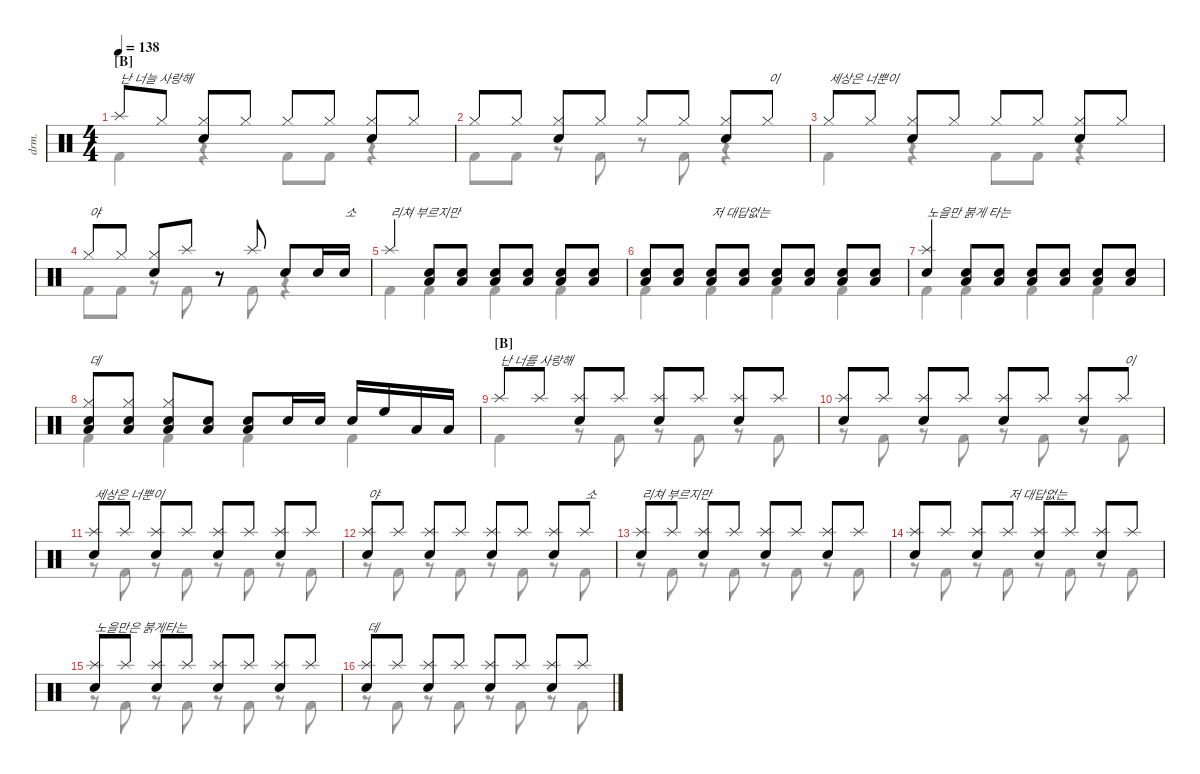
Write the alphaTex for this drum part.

\defaultSystemsLayout 4
\hideDynamics
\bracketExtendMode nobrackets
\track ("Drumkit" "drm.") {instrument percussion}
\staff {score}
\articulation defaults
\voice
\ts (4 4)
\section ("B" "")
\tempo 138
\clef neutral
\ks c "Splash (hit)".8{txt "난 너늘 사랑해" dy mf beam Up} "Hi-Hat (closed)".8{beam Up}
("Hi-Hat (closed)" "Snare (hit) 2").8{beam Up} "Hi-Hat (closed)".8{beam Up} "Hi-Hat (closed)".8{beam Up} "Hi-Hat (closed)".8{beam Up} ("Hi-Hat (closed)" "Snare (hit) 2").8{beam Up} "Hi-Hat (closed)".8{beam Up} |
"Hi-Hat (closed)".8{beam Up} "Hi-Hat (closed)".8{beam Up} ("Hi-Hat (closed)" "Snare (hit) 2").8{beam Up} "Hi-Hat (closed)".8{beam Up} "Hi-Hat (closed)".8{beam Up} "Hi-Hat (closed)".8{beam Up} ("Hi-Hat (closed)" "Snare (hit) 2").8{beam Up} "Hi-Hat (closed)".8{txt "이" beam Up} |
"Hi-Hat (closed)".8{txt "세상은 너뿐이" beam Up} "Hi-Hat (closed)".8{beam Up} ("Hi-Hat (closed)" "Snare (hit) 2").8{beam Up} "Hi-Hat (closed)".8{beam Up} "Hi-Hat (closed)".8{beam Up} "Hi-Hat (closed)".8{beam Up} ("Hi-Hat (closed)" "Snare (hit) 2").8{beam Up} "Hi-Hat (closed)".8{beam Up} |
"Hi-Hat (closed)".8{txt "야" beam Up} "Hi-Hat (closed)".8{beam Up} ("Hi-Hat (closed)" "Snare (hit) 2").8{beam Up} "Splash (hit)".8{beam Up} r.8{beam Up} "Splash (hit)".8{beam Up} "Snare (hit) 2".8{beam Up} "Snare (hit) 2".16{beam Up} "Snare (hit) 2".16{txt "소" beam Up} |
"Splash (hit)".4{txt "리쳐 부르지만" beam Up} ("Snare (hit) 2" "Low Tom (hit)").8{beam Up} ("Snare (hit) 2" "Low Tom (hit)").8{beam Up} ("Snare (hit) 2" "Low Tom (hit)").8{beam Up} ("Snare (hit) 2" "Low Tom (hit)").8{beam Up} ("Snare (hit) 2" "Low Tom (hit)").8{beam Up} ("Snare (hit) 2" "Low Tom (hit)").8{beam Up} |
("Low Tom (hit)" "Snare (hit) 2").8{beam Up} ("Low Tom (hit)" "Snare (hit) 2").8{beam Up} ("Snare (hit) 2" "Low Tom (hit)").8{txt "저 대답없는" beam Up} ("Low Tom (hit)" "Snare (hit) 2").8{beam Up} ("Low Tom (hit)" "Snare (hit) 2").8{beam Up} ("Snare (hit) 2" "Low Tom (hit)").8{beam Up} ("Snare (hit) 2" "Low Tom (hit)").8{beam Up} ("Snare (hit) 2" "Low Tom (hit)").8{beam Up} |
("Splash (hit)" "Snare (hit) 2").4{txt "노을만 붉게 타는" beam Up} ("Snare (hit) 2" "Low Tom (hit)").8{beam Up} ("Snare (hit) 2" "Low Tom (hit)").8{beam Up} ("Snare (hit) 2" "Low Tom (hit)").8{beam Up} ("Snare (hit) 2" "Low Tom (hit)").8{beam Up} ("Snare (hit) 2" "Low Tom (hit)").8{beam Up} ("Snare (hit) 2" "Low Tom (hit)").8{beam Up} |
("Hi-Hat (closed)" "Snare (hit) 2" "Low Tom (hit)").8{txt "데" beam Up} ("Hi-Hat (closed)" "Snare (hit) 2" "Low Tom (hit)").8{beam Up} ("Hi-Hat (closed)" "Snare (hit) 2" "Low Tom (hit)").8{beam Up} ("Snare (hit) 2" "Low Tom (hit)").8{beam Up} ("Snare (hit) 2" "Low Tom (hit)").8{beam Up} "Snare (hit) 2".16{beam Up} "Snare (hit) 2".16{beam Up} "Snare (hit) 2".16{beam Up} "High Floor Tom (hit)".16{beam Up} "Low Tom (hit)".16{beam Up} "Low Tom (hit)".16{beam Up} |
\section ("B" "")
"Splash (hit)".8{txt "난 너를 사랑해" beam Up} "Splash (hit)".8{beam Up} ("Splash (hit)" "Snare (hit) 2").8{beam Up} "Splash (hit)".8{beam Up} ("Splash (hit)" "Snare (hit) 2").8{beam Up} "Splash (hit)".8{beam Up} ("Splash (hit)" "Snare (hit) 2").8{beam Up} "Splash (hit)".8{beam Up} |
("Splash (hit)" "Snare (hit) 2").8{beam Up} "Splash (hit)".8{beam Up} ("Splash (hit)" "Snare (hit) 2").8{beam Up} "Splash (hit)".8{beam Up} ("Splash (hit)" "Snare (hit) 2").8{beam Up} "Splash (hit)".8{beam Up} ("Splash (hit)" "Snare (hit) 2").8{beam Up} "Splash (hit)".8{txt "이" beam Up} |
("Splash (hit)" "Snare (hit) 2").8{txt "세상은 너뿐이" beam Up} "Splash (hit)".8{beam Up} ("Splash (hit)" "Snare (hit) 2").8{beam Up} "Splash (hit)".8{beam Up} ("Splash (hit)" "Snare (hit) 2").8{beam Up} "Splash (hit)".8{beam Up} ("Splash (hit)" "Snare (hit) 2").8{beam Up} "Splash (hit)".8{beam Up} |
("Splash (hit)" "Snare (hit) 2").8{txt "야" beam Up} "Splash (hit)".8{beam Up} ("Splash (hit)" "Snare (hit) 2").8{beam Up} "Splash (hit)".8{beam Up} ("Splash (hit)" "Snare (hit) 2").8{beam Up} "Splash (hit)".8{beam Up} ("Splash (hit)" "Snare (hit) 2").8{beam Up} "Splash (hit)".8{txt "소" beam Up} |
("Splash (hit)" "Snare (hit) 2").8{txt "리쳐 부르지만" beam Up} "Splash (hit)".8{beam Up} ("Splash (hit)" "Snare (hit) 2").8{beam Up} "Splash (hit)".8{beam Up} ("Splash (hit)" "Snare (hit) 2").8{beam Up} "Splash (hit)".8{beam Up} ("Splash (hit)" "Snare (hit) 2").8{beam Up} "Splash (hit)".8{beam Up} |
("Splash (hit)" "Snare (hit) 2").8{beam Up} "Splash (hit)".8{beam Up} ("Splash (hit)" "Snare (hit) 2").8{beam Up} "Splash (hit)".8{txt "저 대답없는" beam Up} ("Splash (hit)" "Snare (hit) 2").8{beam Up} "Splash (hit)".8{beam Up} ("Splash (hit)" "Snare (hit) 2").8{beam Up} "Splash (hit)".8{beam Up} |
("Splash (hit)" "Snare (hit) 2").8{txt "노을만은 붉게타는" beam Up} "Splash (hit)".8{beam Up} ("Splash (hit)" "Snare (hit) 2").8{beam Up} "Splash (hit)".8{beam Up} ("Splash (hit)" "Snare (hit) 2").8{beam Up} "Splash (hit)".8{beam Up} ("Splash (hit)" "Snare (hit) 2").8{beam Up} "Splash (hit)".8{beam Up} |
("Splash (hit)" "Snare (hit) 2").8{txt "데" beam Up} "Splash (hit)".8{beam Up} ("Splash (hit)" "Snare (hit) 2").8{beam Up} "Splash (hit)".8{beam Up} ("Splash (hit)" "Snare (hit) 2").8{beam Up} "Splash (hit)".8{beam Up} ("Splash (hit)" "Snare (hit) 2").8{beam Up} "Splash (hit)".8{beam Up}
\voice
\clef neutral
\ottava regular
\simile none
\ks c
|
|
|
|
|
|
|
|
|
|
|
|
|
|
|
\voice
\clef neutral
\ottava regular
\simile none
\ks c "Kick (hit) 2".4{dy mf beam Down}
r.4{beam Down} "Kick (hit) 2".8{beam Down} "Kick (hit) 2".8{beam Down} r.4{beam Down} |
"Kick (hit) 2".8{beam Down} "Kick (hit) 2".8{beam Down} r.8{beam Down} "Kick (hit) 2".8{beam Down} r.8{beam Down} "Kick (hit) 2".8{beam Down} r.4{beam Down} |
"Kick (hit) 2".4{beam Down} r.4{beam Down} "Kick (hit) 2".8{beam Down} "Kick (hit) 2".8{beam Down} r.4{beam Down} |
"Kick (hit) 2".8{beam Down} "Kick (hit) 2".8{beam Down} r.8{beam Down} "Kick (hit) 2".8{beam Down} r.8{beam Down} "Kick (hit) 2".8{beam Down} r.4{beam Down} |
"Kick (hit) 2".4{beam Down} "Kick (hit) 2".4{beam Down} "Kick (hit) 2".4{beam Down} "Kick (hit) 2".4{beam Down} |
"Kick (hit) 2".4{beam Down} "Kick (hit) 2".4{beam Down} "Kick (hit) 2".4{beam Down} "Kick (hit) 2".4{beam Down} |
"Kick (hit) 2".4{beam Down} "Kick (hit) 2".4{beam Down} "Kick (hit) 2".4{beam Down} "Kick (hit) 2".4{beam Down} |
"Kick (hit) 2".4{beam Down} "Kick (hit) 2".4{beam Down} "Kick (hit) 2".4{beam Down} "Kick (hit) 2".4{beam Down} |
"Kick (hit) 2".4{beam Down} r.8{beam Down} "Kick (hit) 2".8{beam Down} r.8{beam Down} "Kick (hit) 2".8{beam Down} r.8{beam Down} "Kick (hit) 2".8{beam Down} |
r.8{beam Down} "Kick (hit) 2".8{beam Down} r.8{beam Down} "Kick (hit) 2".8{beam Down} r.8{beam Down} "Kick (hit) 2".8{beam Down} r.8{beam Down} "Kick (hit) 2".8{beam Down} |
r.8{beam Down} "Kick (hit) 2".8{beam Down} r.8{beam Down} "Kick (hit) 2".8{beam Down} r.8{beam Down} "Kick (hit) 2".8{beam Down} r.8{beam Down} "Kick (hit) 2".8{beam Down} |
r.8{beam Down} "Kick (hit) 2".8{beam Down} r.8{beam Down} "Kick (hit) 2".8{beam Down} r.8{beam Down} "Kick (hit) 2".8{beam Down} r.8{beam Down} "Kick (hit) 2".8{beam Down} |
r.8{beam Down} "Kick (hit) 2".8{beam Down} r.8{beam Down} "Kick (hit) 2".8{beam Down} r.8{beam Down} "Kick (hit) 2".8{beam Down} r.8{beam Down} "Kick (hit) 2".8{beam Down} |
r.8{beam Down} "Kick (hit) 2".8{beam Down} r.8{beam Down} "Kick (hit) 2".8{beam Down} r.8{beam Down} "Kick (hit) 2".8{beam Down} r.8{beam Down} "Kick (hit) 2".8{beam Down} |
r.8{beam Down} "Kick (hit) 2".8{beam Down} r.8{beam Down} "Kick (hit) 2".8{beam Down} r.8{beam Down} "Kick (hit) 2".8{beam Down} r.8{beam Down} "Kick (hit) 2".8{beam Down} |
r.8{beam Down} "Kick (hit) 2".8{beam Down} r.8{beam Down} "Kick (hit) 2".8{beam Down} r.8{beam Down} "Kick (hit) 2".8{beam Down} r.8{beam Down} "Kick (hit) 2".8{beam Down}
